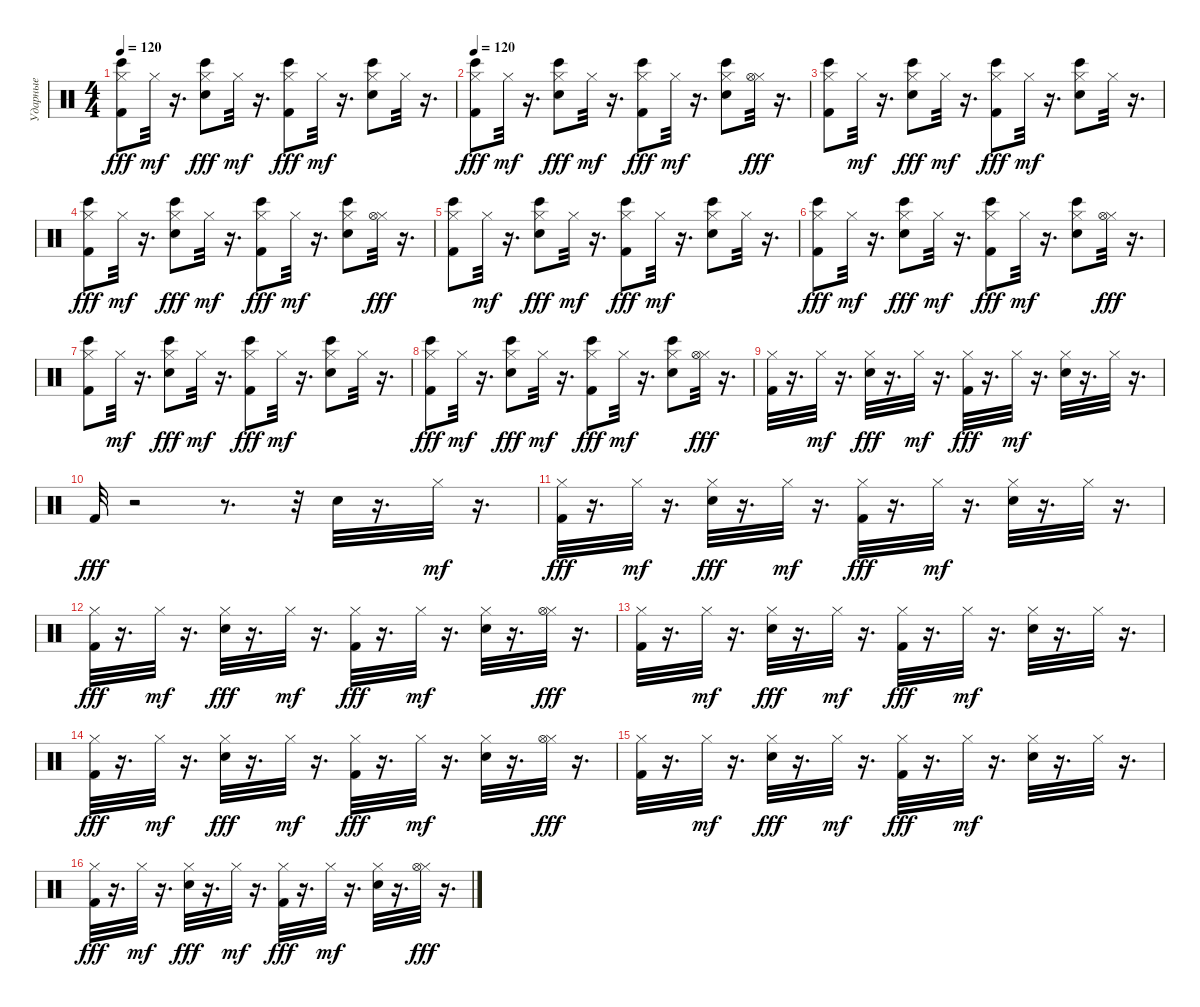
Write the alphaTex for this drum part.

\track ("Ударные" "Ударные") {instrument percussion}
\staff {score}
\articulation defaults
\ts (4 4)
\tempo 120
\clef neutral
\ks c
("Bongo High (hit)" "Hi-Hat (closed)" "Kick (hit) 2").8{dy fff} "Hi-Hat (closed)".32{dy mf} r.16{d} ("Bongo High (hit)" "Hi-Hat (closed)" "Snare (hit) 2").8{dy fff} "Hi-Hat (closed)".32{dy mf} r.16{d} ("Bongo High (hit)" "Hi-Hat (closed)" "Kick (hit) 2").8{dy fff} "Hi-Hat (closed)".32{dy mf} r.16{d} ("Bongo High (hit)" "Snare (hit) 2" "Hi-Hat (closed)").8 "Hi-Hat (closed)".32 r.16{d} |
\tempo 120
("Bongo High (hit)" "Hi-Hat (closed)" "Kick (hit) 2").8{dy fff} "Hi-Hat (closed)".32{dy mf} r.16{d} ("Bongo High (hit)" "Hi-Hat (closed)" "Snare (hit) 2").8{dy fff} "Hi-Hat (closed)".32{dy mf} r.16{d} ("Bongo High (hit)" "Hi-Hat (closed)" "Kick (hit) 2").8{dy fff} "Hi-Hat (closed)".32{dy mf} r.16{d} ("Bongo High (hit)" "Snare (hit) 2" "Hi-Hat (closed)").8 ("Hi-Hat (closed)" "Hi-Hat (open)").32{dy fff} r.16{d} |
("Bongo High (hit)" "Hi-Hat (closed)" "Kick (hit) 2").8 "Hi-Hat (closed)".32{dy mf} r.16{d} ("Bongo High (hit)" "Hi-Hat (closed)" "Snare (hit) 2").8{dy fff} "Hi-Hat (closed)".32{dy mf} r.16{d} ("Bongo High (hit)" "Hi-Hat (closed)" "Kick (hit) 2").8{dy fff} "Hi-Hat (closed)".32{dy mf} r.16{d} ("Bongo High (hit)" "Snare (hit) 2" "Hi-Hat (closed)").8 "Hi-Hat (closed)".32 r.16{d} |
("Bongo High (hit)" "Hi-Hat (closed)" "Kick (hit) 2").8{dy fff} "Hi-Hat (closed)".32{dy mf} r.16{d} ("Bongo High (hit)" "Hi-Hat (closed)" "Snare (hit) 2").8{dy fff} "Hi-Hat (closed)".32{dy mf} r.16{d} ("Bongo High (hit)" "Hi-Hat (closed)" "Kick (hit) 2").8{dy fff} "Hi-Hat (closed)".32{dy mf} r.16{d} ("Bongo High (hit)" "Snare (hit) 2" "Hi-Hat (closed)").8 ("Hi-Hat (closed)" "Hi-Hat (open)").32{dy fff} r.16{d} |
("Bongo High (hit)" "Hi-Hat (closed)" "Kick (hit) 2").8 "Hi-Hat (closed)".32{dy mf} r.16{d} ("Bongo High (hit)" "Hi-Hat (closed)" "Snare (hit) 2").8{dy fff} "Hi-Hat (closed)".32{dy mf} r.16{d} ("Bongo High (hit)" "Hi-Hat (closed)" "Kick (hit) 2").8{dy fff} "Hi-Hat (closed)".32{dy mf} r.16{d} ("Bongo High (hit)" "Snare (hit) 2" "Hi-Hat (closed)").8 "Hi-Hat (closed)".32 r.16{d} |
("Bongo High (hit)" "Hi-Hat (closed)" "Kick (hit) 2").8{dy fff} "Hi-Hat (closed)".32{dy mf} r.16{d} ("Bongo High (hit)" "Hi-Hat (closed)" "Snare (hit) 2").8{dy fff} "Hi-Hat (closed)".32{dy mf} r.16{d} ("Bongo High (hit)" "Hi-Hat (closed)" "Kick (hit) 2").8{dy fff} "Hi-Hat (closed)".32{dy mf} r.16{d} ("Bongo High (hit)" "Snare (hit) 2" "Hi-Hat (closed)").8 ("Hi-Hat (closed)" "Hi-Hat (open)").32{dy fff} r.16{d} |
("Bongo High (hit)" "Hi-Hat (closed)" "Kick (hit) 2").8 "Hi-Hat (closed)".32{dy mf} r.16{d} ("Bongo High (hit)" "Hi-Hat (closed)" "Snare (hit) 2").8{dy fff} "Hi-Hat (closed)".32{dy mf} r.16{d} ("Bongo High (hit)" "Hi-Hat (closed)" "Kick (hit) 2").8{dy fff} "Hi-Hat (closed)".32{dy mf} r.16{d} ("Bongo High (hit)" "Snare (hit) 2" "Hi-Hat (closed)").8 "Hi-Hat (closed)".32 r.16{d} |
("Bongo High (hit)" "Hi-Hat (closed)" "Kick (hit) 2").8{dy fff} "Hi-Hat (closed)".32{dy mf} r.16{d} ("Bongo High (hit)" "Hi-Hat (closed)" "Snare (hit) 2").8{dy fff} "Hi-Hat (closed)".32{dy mf} r.16{d} ("Bongo High (hit)" "Hi-Hat (closed)" "Kick (hit) 2").8{dy fff} "Hi-Hat (closed)".32{dy mf} r.16{d} ("Bongo High (hit)" "Snare (hit) 2" "Hi-Hat (closed)").8 ("Hi-Hat (closed)" "Hi-Hat (open)").32{dy fff} r.16{d} |
("Hi-Hat (closed)" "Kick (hit) 2").32 r.16{d} "Hi-Hat (closed)".32{dy mf} r.16{d} ("Hi-Hat (closed)" "Snare (hit) 2").32{dy fff} r.16{d} "Hi-Hat (closed)".32{dy mf} r.16{d} ("Hi-Hat (closed)" "Kick (hit) 2").32{dy fff} r.16{d} "Hi-Hat (closed)".32{dy mf} r.16{d} ("Snare (hit) 2" "Hi-Hat (closed)").32 r.16{d} "Hi-Hat (closed)".32 r.16{d} |
"Kick (hit) 2".32{dy fff} r.2 r.8{d} r.32 "Snare (hit) 2".32 r.16{d} "Hi-Hat (closed)".32{dy mf} r.16{d} |
("Hi-Hat (closed)" "Kick (hit) 2").32{dy fff} r.16{d} "Hi-Hat (closed)".32{dy mf} r.16{d} ("Hi-Hat (closed)" "Snare (hit) 2").32{dy fff} r.16{d} "Hi-Hat (closed)".32{dy mf} r.16{d} ("Hi-Hat (closed)" "Kick (hit) 2").32{dy fff} r.16{d} "Hi-Hat (closed)".32{dy mf} r.16{d} ("Snare (hit) 2" "Hi-Hat (closed)").32 r.16{d} "Hi-Hat (closed)".32 r.16{d} |
("Hi-Hat (closed)" "Kick (hit) 2").32{dy fff} r.16{d} "Hi-Hat (closed)".32{dy mf} r.16{d} ("Hi-Hat (closed)" "Snare (hit) 2").32{dy fff} r.16{d} "Hi-Hat (closed)".32{dy mf} r.16{d} ("Hi-Hat (closed)" "Kick (hit) 2").32{dy fff} r.16{d} "Hi-Hat (closed)".32{dy mf} r.16{d} ("Snare (hit) 2" "Hi-Hat (closed)").32 r.16{d} ("Hi-Hat (closed)" "Hi-Hat (open)").32{dy fff} r.16{d} |
("Hi-Hat (closed)" "Kick (hit) 2").32 r.16{d} "Hi-Hat (closed)".32{dy mf} r.16{d} ("Hi-Hat (closed)" "Snare (hit) 2").32{dy fff} r.16{d} "Hi-Hat (closed)".32{dy mf} r.16{d} ("Hi-Hat (closed)" "Kick (hit) 2").32{dy fff} r.16{d} "Hi-Hat (closed)".32{dy mf} r.16{d} ("Snare (hit) 2" "Hi-Hat (closed)").32 r.16{d} "Hi-Hat (closed)".32 r.16{d} |
("Hi-Hat (closed)" "Kick (hit) 2").32{dy fff} r.16{d} "Hi-Hat (closed)".32{dy mf} r.16{d} ("Hi-Hat (closed)" "Snare (hit) 2").32{dy fff} r.16{d} "Hi-Hat (closed)".32{dy mf} r.16{d} ("Hi-Hat (closed)" "Kick (hit) 2").32{dy fff} r.16{d} "Hi-Hat (closed)".32{dy mf} r.16{d} ("Snare (hit) 2" "Hi-Hat (closed)").32 r.16{d} ("Hi-Hat (closed)" "Hi-Hat (open)").32{dy fff} r.16{d} |
("Hi-Hat (closed)" "Kick (hit) 2").32 r.16{d} "Hi-Hat (closed)".32{dy mf} r.16{d} ("Hi-Hat (closed)" "Snare (hit) 2").32{dy fff} r.16{d} "Hi-Hat (closed)".32{dy mf} r.16{d} ("Hi-Hat (closed)" "Kick (hit) 2").32{dy fff} r.16{d} "Hi-Hat (closed)".32{dy mf} r.16{d} ("Snare (hit) 2" "Hi-Hat (closed)").32 r.16{d} "Hi-Hat (closed)".32 r.16{d} |
("Hi-Hat (closed)" "Kick (hit) 2").32{dy fff} r.16{d} "Hi-Hat (closed)".32{dy mf} r.16{d} ("Hi-Hat (closed)" "Snare (hit) 2").32{dy fff} r.16{d} "Hi-Hat (closed)".32{dy mf} r.16{d} ("Hi-Hat (closed)" "Kick (hit) 2").32{dy fff} r.16{d} "Hi-Hat (closed)".32{dy mf} r.16{d} ("Snare (hit) 2" "Hi-Hat (closed)").32 r.16{d} ("Hi-Hat (closed)" "Hi-Hat (open)").32{dy fff} r.16{d}
